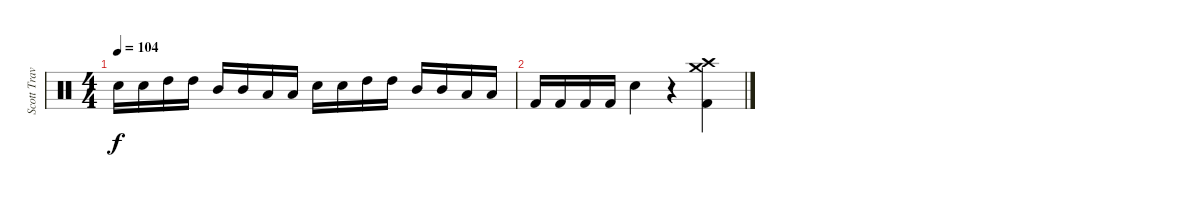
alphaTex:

\track ("Scott Travis" "Scott Trav") {instrument percussion}
\staff {score}
\articulation defaults
\ts (4 4)
\tempo 104
\clef neutral
\ks c "Snare (hit) 2".16{dy f} "Snare (hit) 2".16 "High Tom (hit)".16 "High Tom (hit)".16 "Mid Tom (hit)".16 "Mid Tom (hit)".16 "Low Tom (hit)".16 "Low Tom (hit)".16 "Snare (hit) 2".16 "Snare (hit) 2".16 "High Tom (hit)".16 "High Tom (hit)".16 "Mid Tom (hit)".16 "Mid Tom (hit)".16 "Low Tom (hit)".16 "Low Tom (hit)".16
|
"Kick (hit) 2".16 "Kick (hit) 2".16 "Kick (hit) 2".16 "Kick (hit) 2".16 "Snare (hit) 2".4 r.4 ("Crash high (hit)" "Kick (hit) 2" "Crash medium (hit)").4
